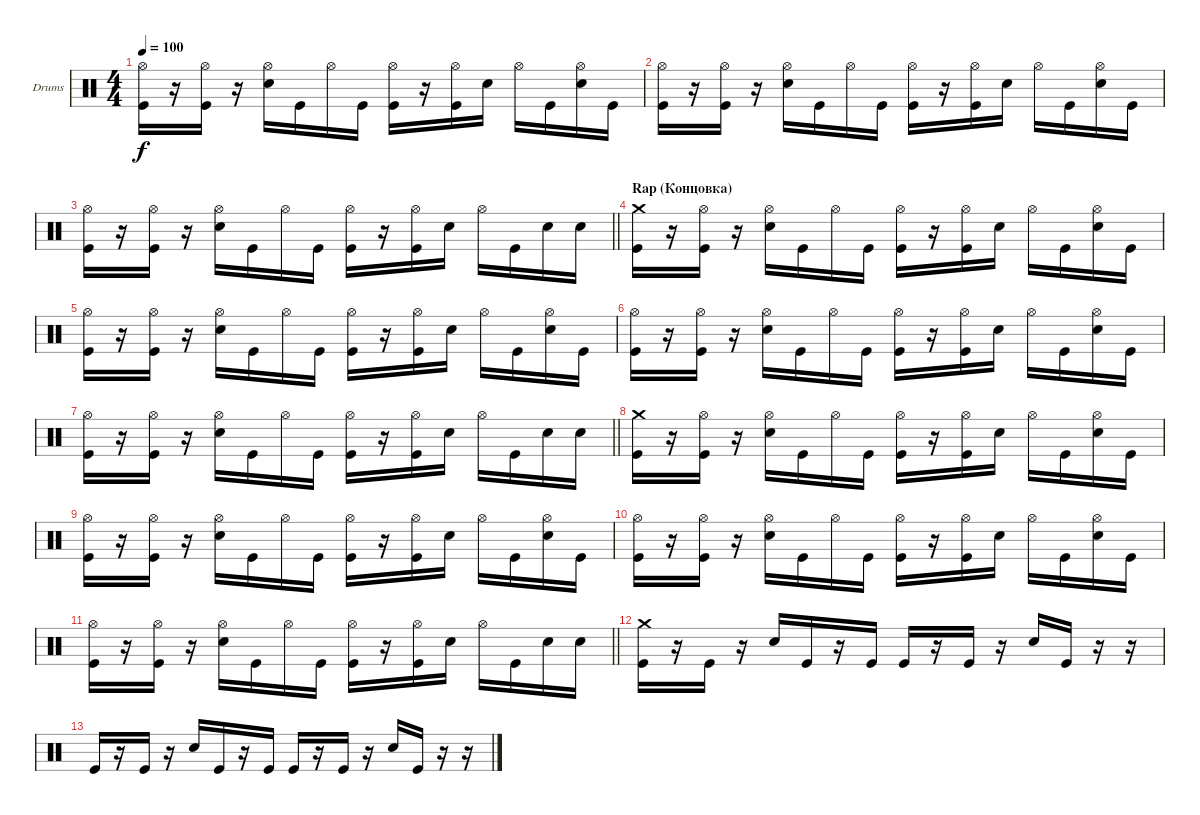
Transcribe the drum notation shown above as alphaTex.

\bracketExtendMode groupsimilarinstruments
\firstSystemTrackNameOrientation horizontal
\otherSystemsTrackNameOrientation horizontal
\track ("Drumkit" "Drums") {instrument percussion}
\staff {score}
\articulation defaults
\ts (4 4)
\tempo 100
\clef neutral
\ks c
("Hi-Hat (open)" "Kick (hit)").16{dy f} r.16 ("Hi-Hat (open)" "Kick (hit)").16 r.16 ("Hi-Hat (open)" "Snare (hit) 2").16 "Kick (hit)".16 "Hi-Hat (open)".16 "Kick (hit)".16 ("Hi-Hat (open)" "Kick (hit)").16 r.16 ("Hi-Hat (open)" "Kick (hit)").16 "Snare (hit) 2".16 "Hi-Hat (open)".16 "Kick (hit)".16 ("Hi-Hat (open)" "Snare (hit) 2").16 "Kick (hit)".16 |
("Hi-Hat (open)" "Kick (hit)").16 r.16 ("Hi-Hat (open)" "Kick (hit)").16 r.16 ("Hi-Hat (open)" "Snare (hit) 2").16 "Kick (hit)".16 "Hi-Hat (open)".16 "Kick (hit)".16 ("Hi-Hat (open)" "Kick (hit)").16 r.16 ("Hi-Hat (open)" "Kick (hit)").16 "Snare (hit) 2".16 "Hi-Hat (open)".16 "Kick (hit)".16 ("Hi-Hat (open)" "Snare (hit) 2").16 "Kick (hit)".16 |
\barLineRight lightlight
("Hi-Hat (open)" "Kick (hit)").16 r.16 ("Hi-Hat (open)" "Kick (hit)").16 r.16 ("Hi-Hat (open)" "Snare (hit) 2").16 "Kick (hit)".16 "Hi-Hat (open)".16 "Kick (hit)".16 ("Hi-Hat (open)" "Kick (hit)").16 r.16 ("Hi-Hat (open)" "Kick (hit)").16 "Snare (hit) 2".16 "Hi-Hat (open)".16 "Kick (hit)".16 "Snare (hit) 2".16 "Snare (hit) 2".16 |
\section ("" "Rap (Концовка)")
("Crash medium (hit)" "Kick (hit)").16 r.16 ("Hi-Hat (open)" "Kick (hit)").16 r.16 ("Hi-Hat (open)" "Snare (hit) 2").16 "Kick (hit)".16 "Hi-Hat (open)".16 "Kick (hit)".16 ("Hi-Hat (open)" "Kick (hit)").16 r.16 ("Hi-Hat (open)" "Kick (hit)").16 "Snare (hit) 2".16 "Hi-Hat (open)".16 "Kick (hit)".16 ("Hi-Hat (open)" "Snare (hit) 2").16 "Kick (hit)".16 |
("Hi-Hat (open)" "Kick (hit)").16 r.16 ("Hi-Hat (open)" "Kick (hit)").16 r.16 ("Hi-Hat (open)" "Snare (hit) 2").16 "Kick (hit)".16 "Hi-Hat (open)".16 "Kick (hit)".16 ("Hi-Hat (open)" "Kick (hit)").16 r.16 ("Hi-Hat (open)" "Kick (hit)").16 "Snare (hit) 2".16 "Hi-Hat (open)".16 "Kick (hit)".16 ("Hi-Hat (open)" "Snare (hit) 2").16 "Kick (hit)".16 |
("Hi-Hat (open)" "Kick (hit)").16 r.16 ("Hi-Hat (open)" "Kick (hit)").16 r.16 ("Hi-Hat (open)" "Snare (hit) 2").16 "Kick (hit)".16 "Hi-Hat (open)".16 "Kick (hit)".16 ("Hi-Hat (open)" "Kick (hit)").16 r.16 ("Hi-Hat (open)" "Kick (hit)").16 "Snare (hit) 2".16 "Hi-Hat (open)".16 "Kick (hit)".16 ("Hi-Hat (open)" "Snare (hit) 2").16 "Kick (hit)".16 |
\barLineRight lightlight
("Hi-Hat (open)" "Kick (hit)").16 r.16 ("Hi-Hat (open)" "Kick (hit)").16 r.16 ("Hi-Hat (open)" "Snare (hit) 2").16 "Kick (hit)".16 "Hi-Hat (open)".16 "Kick (hit)".16 ("Hi-Hat (open)" "Kick (hit)").16 r.16 ("Hi-Hat (open)" "Kick (hit)").16 "Snare (hit) 2".16 "Hi-Hat (open)".16 "Kick (hit)".16 "Snare (hit) 2".16 "Snare (hit) 2".16 |
("Crash medium (hit)" "Kick (hit)").16 r.16 ("Hi-Hat (open)" "Kick (hit)").16 r.16 ("Hi-Hat (open)" "Snare (hit) 2").16 "Kick (hit)".16 "Hi-Hat (open)".16 "Kick (hit)".16 ("Hi-Hat (open)" "Kick (hit)").16 r.16 ("Hi-Hat (open)" "Kick (hit)").16 "Snare (hit) 2".16 "Hi-Hat (open)".16 "Kick (hit)".16 ("Hi-Hat (open)" "Snare (hit) 2").16 "Kick (hit)".16 |
("Hi-Hat (open)" "Kick (hit)").16 r.16 ("Hi-Hat (open)" "Kick (hit)").16 r.16 ("Hi-Hat (open)" "Snare (hit) 2").16 "Kick (hit)".16 "Hi-Hat (open)".16 "Kick (hit)".16 ("Hi-Hat (open)" "Kick (hit)").16 r.16 ("Hi-Hat (open)" "Kick (hit)").16 "Snare (hit) 2".16 "Hi-Hat (open)".16 "Kick (hit)".16 ("Hi-Hat (open)" "Snare (hit) 2").16 "Kick (hit)".16 |
("Hi-Hat (open)" "Kick (hit)").16 r.16 ("Hi-Hat (open)" "Kick (hit)").16 r.16 ("Hi-Hat (open)" "Snare (hit) 2").16 "Kick (hit)".16 "Hi-Hat (open)".16 "Kick (hit)".16 ("Hi-Hat (open)" "Kick (hit)").16 r.16 ("Hi-Hat (open)" "Kick (hit)").16 "Snare (hit) 2".16 "Hi-Hat (open)".16 "Kick (hit)".16 ("Hi-Hat (open)" "Snare (hit) 2").16 "Kick (hit)".16 |
\barLineRight lightlight
("Hi-Hat (open)" "Kick (hit)").16 r.16 ("Hi-Hat (open)" "Kick (hit)").16 r.16 ("Hi-Hat (open)" "Snare (hit) 2").16 "Kick (hit)".16 "Hi-Hat (open)".16 "Kick (hit)".16 ("Hi-Hat (open)" "Kick (hit)").16 r.16 ("Hi-Hat (open)" "Kick (hit)").16 "Snare (hit) 2".16 "Hi-Hat (open)".16 "Kick (hit)".16 "Snare (hit) 2".16 "Snare (hit) 2".16 |
("Crash medium (hit)" "Kick (hit)").16 r.16 "Kick (hit)".16 r.16 "Snare (hit) 2".16 "Kick (hit)".16 r.16 "Kick (hit)".16 "Kick (hit)".16 r.16 "Kick (hit)".16 r.16 "Snare (hit) 2".16 "Kick (hit)".16 r.16 r.16 |
"Kick (hit)".16 r.16 "Kick (hit)".16 r.16 "Snare (hit) 2".16 "Kick (hit)".16 r.16 "Kick (hit)".16 "Kick (hit)".16 r.16 "Kick (hit)".16 r.16 "Snare (hit) 2".16 "Kick (hit)".16 r.16 r.16
